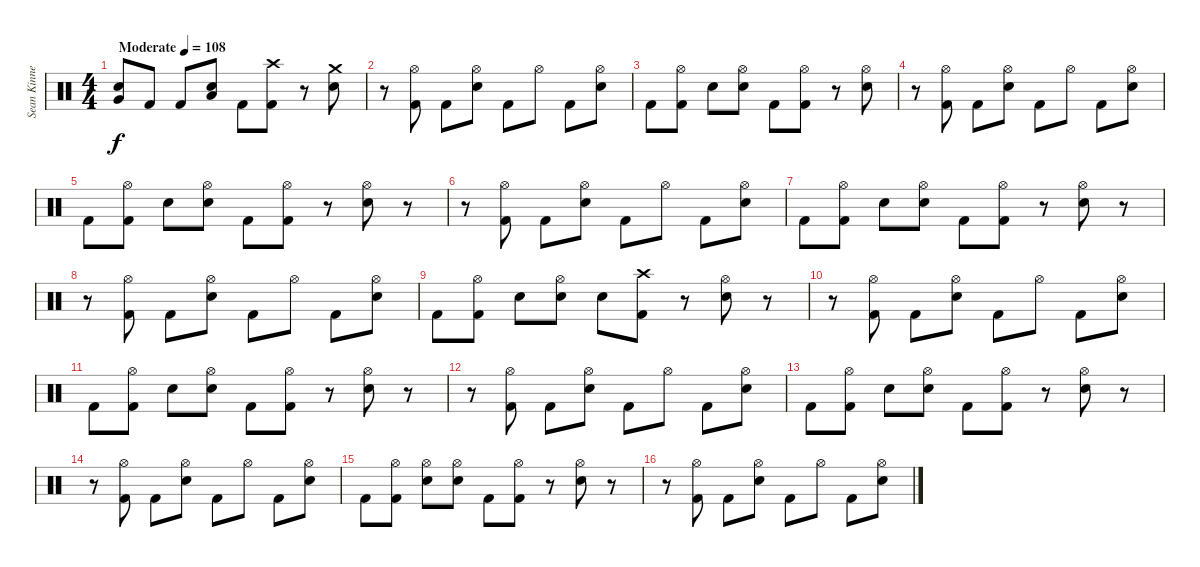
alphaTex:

\track ("Sean Kinney" "Sean Kinne") {instrument percussion}
\staff {score}
\articulation defaults
\ts (4 4)
\tempo (108 "Moderate")
\clef neutral
\ks c
("Electric Snare (hit)" "Very Low Tom (hit)").8{dy f} "Kick (hit) 2".8 "Kick (hit) 2".8 ("Electric Snare (hit)" "Low Floor Tom (hit)").8 "Kick (hit) 2".8 ("Crash high (hit)" "Kick (hit) 2").8 r.8 ("Crash medium (hit)" "Electric Snare (hit)").8 |
r.8 ("Hi-Hat (open)" "Kick (hit) 2").8 "Kick (hit) 2".8 ("Hi-Hat (open)" "Electric Snare (hit)").8 "Kick (hit) 2".8 "Hi-Hat (open)".8 "Kick (hit) 2".8 ("Hi-Hat (open)" "Electric Snare (hit)").8 |
"Kick (hit) 2".8 ("Hi-Hat (open)" "Kick (hit) 2").8 "Electric Snare (hit)".8 ("Hi-Hat (open)" "Electric Snare (hit)").8 "Kick (hit) 2".8 ("Hi-Hat (open)" "Kick (hit) 2").8 r.8 ("Hi-Hat (open)" "Electric Snare (hit)").8 |
r.8 ("Hi-Hat (open)" "Kick (hit) 2").8 "Kick (hit) 2".8 ("Hi-Hat (open)" "Electric Snare (hit)").8 "Kick (hit) 2".8 "Hi-Hat (open)".8 "Kick (hit) 2".8 ("Hi-Hat (open)" "Electric Snare (hit)").8 |
"Kick (hit) 2".8 ("Hi-Hat (open)" "Kick (hit) 2").8 "Electric Snare (hit)".8 ("Hi-Hat (open)" "Electric Snare (hit)").8 "Kick (hit) 2".8 ("Hi-Hat (open)" "Kick (hit) 2").8 r.8 ("Hi-Hat (open)" "Electric Snare (hit)").8 r.8 |
r.8 ("Hi-Hat (open)" "Kick (hit) 2").8 "Kick (hit) 2".8 ("Hi-Hat (open)" "Electric Snare (hit)").8 "Kick (hit) 2".8 "Hi-Hat (open)".8 "Kick (hit) 2".8 ("Hi-Hat (open)" "Electric Snare (hit)").8 |
"Kick (hit) 2".8 ("Hi-Hat (open)" "Kick (hit) 2").8 "Electric Snare (hit)".8 ("Hi-Hat (open)" "Electric Snare (hit)").8 "Kick (hit) 2".8 ("Hi-Hat (open)" "Kick (hit) 2").8 r.8 ("Hi-Hat (open)" "Electric Snare (hit)").8 r.8 |
r.8 ("Hi-Hat (open)" "Kick (hit) 2").8 "Kick (hit) 2".8 ("Hi-Hat (open)" "Electric Snare (hit)").8 "Kick (hit) 2".8 "Hi-Hat (open)".8 "Kick (hit) 2".8 ("Hi-Hat (open)" "Electric Snare (hit)").8 |
"Kick (hit) 2".8 ("Hi-Hat (open)" "Kick (hit) 2").8 "Electric Snare (hit)".8 ("Hi-Hat (open)" "Electric Snare (hit)").8 "Electric Snare (hit)".8 ("Crash high (hit)" "Kick (hit) 2").8 r.8 ("Hi-Hat (open)" "Electric Snare (hit)").8 r.8 |
r.8 ("Hi-Hat (open)" "Kick (hit) 2").8 "Kick (hit) 2".8 ("Hi-Hat (open)" "Electric Snare (hit)").8 "Kick (hit) 2".8 "Hi-Hat (open)".8 "Kick (hit) 2".8 ("Hi-Hat (open)" "Electric Snare (hit)").8 |
"Kick (hit) 2".8 ("Hi-Hat (open)" "Kick (hit) 2").8 "Electric Snare (hit)".8 ("Hi-Hat (open)" "Electric Snare (hit)").8 "Kick (hit) 2".8 ("Hi-Hat (open)" "Kick (hit) 2").8 r.8 ("Hi-Hat (open)" "Electric Snare (hit)").8 r.8 |
r.8 ("Hi-Hat (open)" "Kick (hit) 2").8 "Kick (hit) 2".8 ("Hi-Hat (open)" "Electric Snare (hit)").8 "Kick (hit) 2".8 "Hi-Hat (open)".8 "Kick (hit) 2".8 ("Hi-Hat (open)" "Electric Snare (hit)").8 |
"Kick (hit) 2".8 ("Hi-Hat (open)" "Kick (hit) 2").8 "Electric Snare (hit)".8 ("Hi-Hat (open)" "Electric Snare (hit)").8 "Kick (hit) 2".8 ("Hi-Hat (open)" "Kick (hit) 2").8 r.8 ("Hi-Hat (open)" "Electric Snare (hit)").8 r.8 |
r.8 ("Hi-Hat (open)" "Kick (hit) 2").8 "Kick (hit) 2".8 ("Hi-Hat (open)" "Electric Snare (hit)").8 "Kick (hit) 2".8 "Hi-Hat (open)".8 "Kick (hit) 2".8 ("Hi-Hat (open)" "Electric Snare (hit)").8 |
"Kick (hit) 2".8 ("Hi-Hat (open)" "Kick (hit) 2").8 ("Hi-Hat (open)" "Electric Snare (hit)").8 ("Hi-Hat (open)" "Electric Snare (hit)").8 "Kick (hit) 2".8 ("Hi-Hat (open)" "Kick (hit) 2").8 r.8 ("Hi-Hat (open)" "Electric Snare (hit)").8 r.8 |
r.8 ("Hi-Hat (open)" "Kick (hit) 2").8 "Kick (hit) 2".8 ("Hi-Hat (open)" "Electric Snare (hit)").8 "Kick (hit) 2".8 "Hi-Hat (open)".8 "Kick (hit) 2".8 ("Hi-Hat (open)" "Electric Snare (hit)").8
